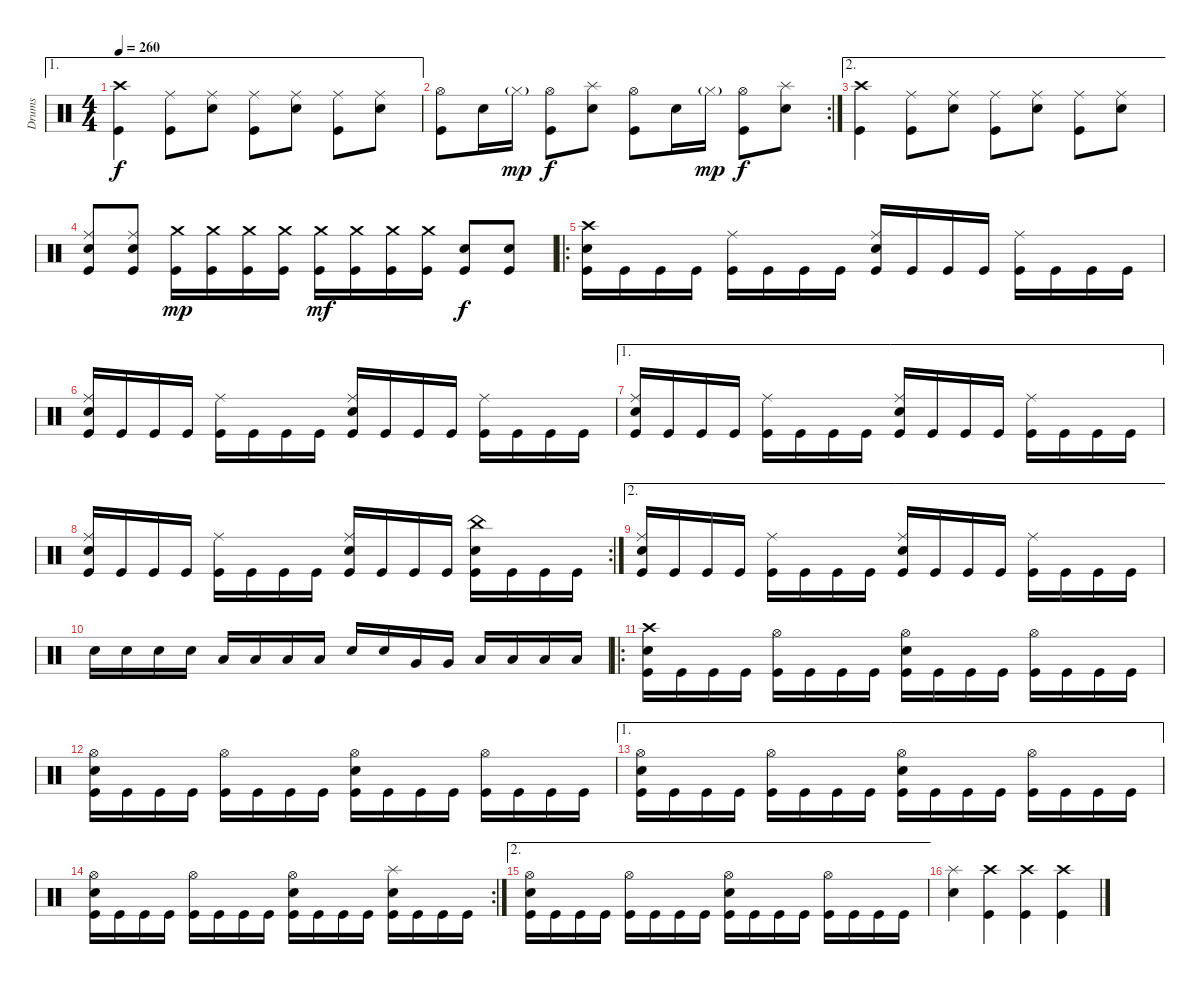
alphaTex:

\track ("Drums" "Drums") {instrument percussion}
\staff {score}
\articulation defaults
\ae 1
\ts (4 4)
\tempo 260
\clef neutral
\ks c
("Crash high (hit)" "Kick (hit)").4{dy f} ("Ride (middle)" "Kick (hit)").8 ("Ride (middle)" "Electric Snare (hit)").8 ("Ride (middle)" "Kick (hit)").8 ("Ride (middle)" "Electric Snare (hit)").8 ("Ride (middle)" "Kick (hit)").8 ("Ride (middle)" "Electric Snare (hit)").8 |
\rc 2
("Hi-Hat (open)" "Kick (hit)").8 "Electric Snare (hit)".16 "Hi-Hat (closed)"{g}.16{dy mp} ("Hi-Hat (open)" "Kick (hit)").8{dy f} ("Splash (hit)" "Electric Snare (hit)").8 ("Hi-Hat (open)" "Kick (hit)").8 "Electric Snare (hit)".16 "Hi-Hat (closed)"{g}.16{dy mp} ("Hi-Hat (open)" "Kick (hit)").8{dy f} ("Splash (hit)" "Electric Snare (hit)").8 |
\ae 2
("Crash high (hit)" "Kick (hit)").4 ("Ride (middle)" "Kick (hit)").8 ("Ride (middle)" "Electric Snare (hit)").8 ("Ride (middle)" "Kick (hit)").8 ("Ride (middle)" "Electric Snare (hit)").8 ("Ride (middle)" "Kick (hit)").8 ("Ride (middle)" "Electric Snare (hit)").8 |
("Ride (middle)" "Electric Snare (hit)" "Kick (hit)").8 ("Ride (middle)" "Electric Snare (hit)" "Kick (hit)").8 ("Crash medium (hit)" "Kick (hit)").16{dy mp} ("Crash medium (hit)" "Kick (hit)").16 ("Crash medium (hit)" "Kick (hit)").16 ("Crash medium (hit)" "Kick (hit)").16 ("Crash medium (hit)" "Kick (hit)").16{dy mf} ("Crash medium (hit)" "Kick (hit)").16 ("Crash medium (hit)" "Kick (hit)").16 ("Crash medium (hit)" "Kick (hit)").16 ("Electric Snare (hit)" "Kick (hit)").8{dy f} ("Electric Snare (hit)" "Kick (hit)").8 |
\ro
("Crash high (hit)" "Electric Snare (hit)" "Kick (hit)").16 "Kick (hit)".16 "Kick (hit)".16 "Kick (hit)".16 ("Ride (middle)" "Kick (hit)").16 "Kick (hit)".16 "Kick (hit)".16 "Kick (hit)".16 ("Ride (middle)" "Electric Snare (hit)" "Kick (hit)").16 "Kick (hit)".16 "Kick (hit)".16 "Kick (hit)".16 ("Ride (middle)" "Kick (hit)").16 "Kick (hit)".16 "Kick (hit)".16 "Kick (hit)".16 |
("Ride (middle)" "Electric Snare (hit)" "Kick (hit)").16 "Kick (hit)".16 "Kick (hit)".16 "Kick (hit)".16 ("Ride (middle)" "Kick (hit)").16 "Kick (hit)".16 "Kick (hit)".16 "Kick (hit)".16 ("Ride (middle)" "Electric Snare (hit)" "Kick (hit)").16 "Kick (hit)".16 "Kick (hit)".16 "Kick (hit)".16 ("Ride (middle)" "Kick (hit)").16 "Kick (hit)".16 "Kick (hit)".16 "Kick (hit)".16 |
\ae 1
("Ride (middle)" "Electric Snare (hit)" "Kick (hit)").16 "Kick (hit)".16 "Kick (hit)".16 "Kick (hit)".16 ("Ride (middle)" "Kick (hit)").16 "Kick (hit)".16 "Kick (hit)".16 "Kick (hit)".16 ("Ride (middle)" "Electric Snare (hit)" "Kick (hit)").16 "Kick (hit)".16 "Kick (hit)".16 "Kick (hit)".16 ("Ride (middle)" "Kick (hit)").16 "Kick (hit)".16 "Kick (hit)".16 "Kick (hit)".16 |
\rc 2
("Ride (middle)" "Electric Snare (hit)" "Kick (hit)").16 "Kick (hit)".16 "Kick (hit)".16 "Kick (hit)".16 ("Ride (middle)" "Kick (hit)").16 "Kick (hit)".16 "Kick (hit)".16 "Kick (hit)".16 ("Ride (middle)" "Electric Snare (hit)" "Kick (hit)").16 "Kick (hit)".16 "Kick (hit)".16 "Kick (hit)".16 ("China (hit)" "Electric Snare (hit)" "Kick (hit)").16 "Kick (hit)".16 "Kick (hit)".16 "Kick (hit)".16 |
\ae 2
("Ride (middle)" "Electric Snare (hit)" "Kick (hit)").16 "Kick (hit)".16 "Kick (hit)".16 "Kick (hit)".16 ("Ride (middle)" "Kick (hit)").16 "Kick (hit)".16 "Kick (hit)".16 "Kick (hit)".16 ("Ride (middle)" "Electric Snare (hit)" "Kick (hit)").16 "Kick (hit)".16 "Kick (hit)".16 "Kick (hit)".16 ("Ride (middle)" "Kick (hit)").16 "Kick (hit)".16 "Kick (hit)".16 "Kick (hit)".16 |
"Electric Snare (hit)".16 "Electric Snare (hit)".16 "Electric Snare (hit)".16 "Electric Snare (hit)".16 "Low Tom (hit)".16 "Low Tom (hit)".16 "Low Tom (hit)".16 "Low Tom (hit)".16 "Electric Snare (hit)".16 "Electric Snare (hit)".16 "Very Low Tom (hit)".16 "Very Low Tom (hit)".16 "Low Floor Tom (hit)".16 "Low Floor Tom (hit)".16 "Low Floor Tom (hit)".16 "Low Floor Tom (hit)".16 |
\ro
("Crash high (hit)" "Electric Snare (hit)" "Kick (hit)").16 "Kick (hit)".16 "Kick (hit)".16 "Kick (hit)".16 ("Hi-Hat (open)" "Kick (hit)").16 "Kick (hit)".16 "Kick (hit)".16 "Kick (hit)".16 ("Hi-Hat (open)" "Electric Snare (hit)" "Kick (hit)").16 "Kick (hit)".16 "Kick (hit)".16 "Kick (hit)".16 ("Hi-Hat (open)" "Kick (hit)").16 "Kick (hit)".16 "Kick (hit)".16 "Kick (hit)".16 |
("Hi-Hat (open)" "Electric Snare (hit)" "Kick (hit)").16 "Kick (hit)".16 "Kick (hit)".16 "Kick (hit)".16 ("Hi-Hat (open)" "Kick (hit)").16 "Kick (hit)".16 "Kick (hit)".16 "Kick (hit)".16 ("Hi-Hat (open)" "Electric Snare (hit)" "Kick (hit)").16 "Kick (hit)".16 "Kick (hit)".16 "Kick (hit)".16 ("Hi-Hat (open)" "Kick (hit)").16 "Kick (hit)".16 "Kick (hit)".16 "Kick (hit)".16 |
\ae 1
("Hi-Hat (open)" "Electric Snare (hit)" "Kick (hit)").16 "Kick (hit)".16 "Kick (hit)".16 "Kick (hit)".16 ("Hi-Hat (open)" "Kick (hit)").16 "Kick (hit)".16 "Kick (hit)".16 "Kick (hit)".16 ("Hi-Hat (open)" "Electric Snare (hit)" "Kick (hit)").16 "Kick (hit)".16 "Kick (hit)".16 "Kick (hit)".16 ("Hi-Hat (open)" "Kick (hit)").16 "Kick (hit)".16 "Kick (hit)".16 "Kick (hit)".16 |
\rc 2
("Hi-Hat (open)" "Electric Snare (hit)" "Kick (hit)").16 "Kick (hit)".16 "Kick (hit)".16 "Kick (hit)".16 ("Hi-Hat (open)" "Kick (hit)").16 "Kick (hit)".16 "Kick (hit)".16 "Kick (hit)".16 ("Hi-Hat (open)" "Electric Snare (hit)" "Kick (hit)").16 "Kick (hit)".16 "Kick (hit)".16 "Kick (hit)".16 ("Splash (hit)" "Electric Snare (hit)" "Kick (hit)").16 "Kick (hit)".16 "Kick (hit)".16 "Kick (hit)".16 |
\ae 2
("Hi-Hat (open)" "Electric Snare (hit)" "Kick (hit)").16 "Kick (hit)".16 "Kick (hit)".16 "Kick (hit)".16 ("Hi-Hat (open)" "Kick (hit)").16 "Kick (hit)".16 "Kick (hit)".16 "Kick (hit)".16 ("Hi-Hat (open)" "Electric Snare (hit)" "Kick (hit)").16 "Kick (hit)".16 "Kick (hit)".16 "Kick (hit)".16 ("Hi-Hat (open)" "Kick (hit)").16 "Kick (hit)".16 "Kick (hit)".16 "Kick (hit)".16 |
("Splash (hit)" "Electric Snare (hit)").4 ("Crash high (hit)" "Kick (hit)").4 ("Crash high (hit)" "Kick (hit)").4 ("Crash high (hit)" "Kick (hit)").4
